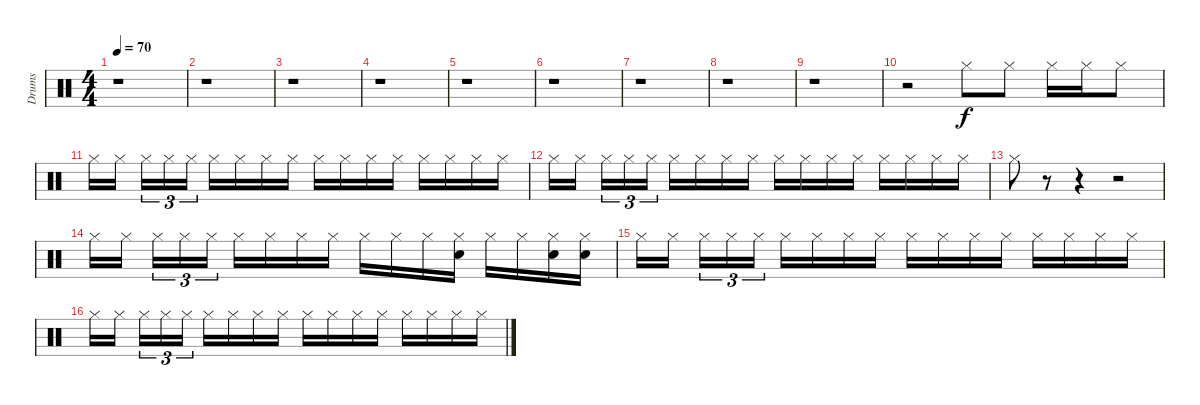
\track ("Drums" "Drums") {instrument percussion}
\staff {score}
\articulation defaults
\ts (4 4)
\tempo 70
\clef neutral
\ks c
r.1{dy f} |
r.1 |
r.1 |
r.1 |
r.1 |
r.1 |
r.1 |
r.1 |
r.1 |
r.2 "Hi-Hat (closed)".8 "Hi-Hat (closed)".8 "Hi-Hat (closed)".16 "Hi-Hat (closed)".16 "Hi-Hat (closed)".8 |
"Hi-Hat (closed)".16 "Hi-Hat (closed)".16 "Hi-Hat (closed)".16{tu (3 2)} "Hi-Hat (closed)".16{tu (3 2)} "Hi-Hat (closed)".16{tu (3 2)} "Hi-Hat (closed)".16 "Hi-Hat (closed)".16 "Hi-Hat (closed)".16 "Hi-Hat (closed)".16 "Hi-Hat (closed)".16 "Hi-Hat (closed)".16 "Hi-Hat (closed)".16 "Hi-Hat (closed)".16 "Hi-Hat (closed)".16 "Hi-Hat (closed)".16 "Hi-Hat (closed)".16 "Hi-Hat (closed)".16 |
"Hi-Hat (closed)".16 "Hi-Hat (closed)".16 "Hi-Hat (closed)".16{tu (3 2)} "Hi-Hat (closed)".16{tu (3 2)} "Hi-Hat (closed)".16{tu (3 2)} "Hi-Hat (closed)".16 "Hi-Hat (closed)".16 "Hi-Hat (closed)".16 "Hi-Hat (closed)".16 "Hi-Hat (closed)".16 "Hi-Hat (closed)".16 "Hi-Hat (closed)".16 "Hi-Hat (closed)".16 "Hi-Hat (closed)".16 "Hi-Hat (closed)".16 "Hi-Hat (closed)".16 "Hi-Hat (closed)".16 |
"Hi-Hat (closed)".8 r.8 r.4 r.2 |
"Hi-Hat (closed)".16 "Hi-Hat (closed)".16 "Hi-Hat (closed)".16{tu (3 2)} "Hi-Hat (closed)".16{tu (3 2)} "Hi-Hat (closed)".16{tu (3 2)} "Hi-Hat (closed)".16 "Hi-Hat (closed)".16 "Hi-Hat (closed)".16 "Hi-Hat (closed)".16 "Hi-Hat (closed)".16 "Hi-Hat (closed)".16 "Hi-Hat (closed)".16 ("Hi-Hat (closed)" "Snare (hit) 2").16 "Hi-Hat (closed)".16 "Hi-Hat (closed)".16 ("Hi-Hat (closed)" "Snare (hit) 2").16 ("Hi-Hat (closed)" "Snare (hit) 2").16 |
"Hi-Hat (closed)".16 "Hi-Hat (closed)".16 "Hi-Hat (closed)".16{tu (3 2)} "Hi-Hat (closed)".16{tu (3 2)} "Hi-Hat (closed)".16{tu (3 2)} "Hi-Hat (closed)".16 "Hi-Hat (closed)".16 "Hi-Hat (closed)".16 "Hi-Hat (closed)".16 "Hi-Hat (closed)".16 "Hi-Hat (closed)".16 "Hi-Hat (closed)".16 "Hi-Hat (closed)".16 "Hi-Hat (closed)".16 "Hi-Hat (closed)".16 "Hi-Hat (closed)".16 "Hi-Hat (closed)".16 |
"Hi-Hat (closed)".16 "Hi-Hat (closed)".16 "Hi-Hat (closed)".16{tu (3 2)} "Hi-Hat (closed)".16{tu (3 2)} "Hi-Hat (closed)".16{tu (3 2)} "Hi-Hat (closed)".16 "Hi-Hat (closed)".16 "Hi-Hat (closed)".16 "Hi-Hat (closed)".16 "Hi-Hat (closed)".16 "Hi-Hat (closed)".16 "Hi-Hat (closed)".16 "Hi-Hat (closed)".16 "Hi-Hat (closed)".16 "Hi-Hat (closed)".16 "Hi-Hat (closed)".16 "Hi-Hat (closed)".16
